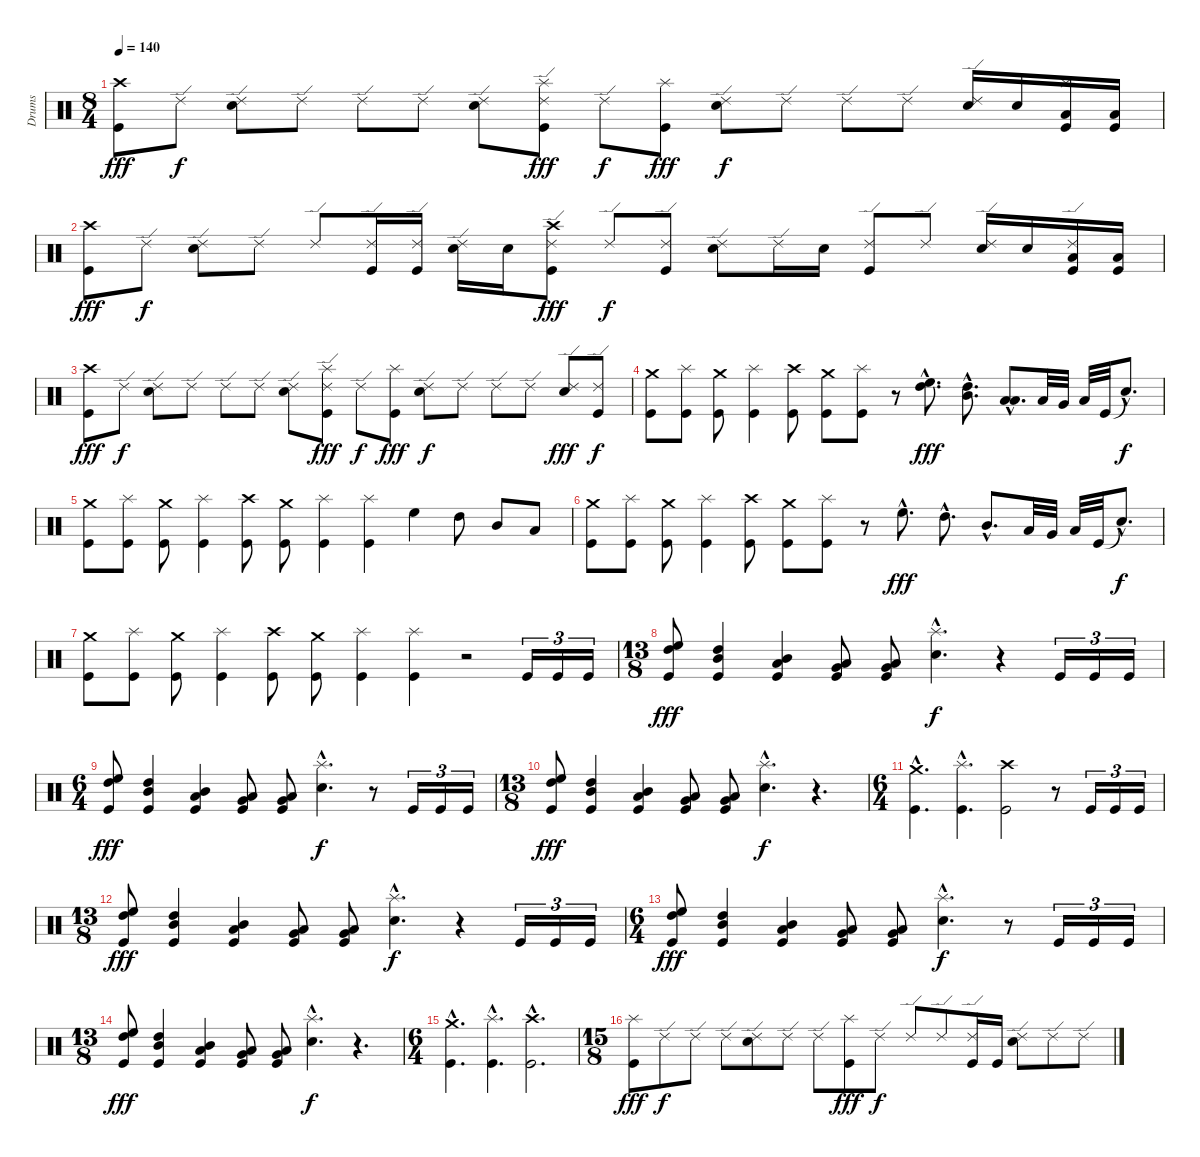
\track ("Drums" "Drums") {instrument percussion}
\staff {score}
\articulation defaults
\ts (8 4)
\tempo 140
\clef neutral
\ks c
("Crash high (hit)" "Kick (hit)").8{dy fff} "Ride (edge) 2".8{dy f} ("Ride (edge) 2" "Snare (hit) 2").8 "Ride (edge) 2".8 "Ride (edge) 2".8 "Ride (edge) 2".8 ("Ride (edge) 2" "Snare (hit) 2").8 ("Splash (hit)" "Kick (hit)" "Ride (edge) 2").8{dy fff} "Ride (edge) 2".8{dy f} ("Splash (hit)" "Kick (hit)").8{dy fff} ("Ride (edge) 2" "Snare (hit) 2").8{dy f} "Ride (edge) 2".8 "Ride (edge) 2".8 "Ride (edge) 2".8 ("Ride (edge) 2" "Snare (hit) 2").16 "Snare (hit) 2".16 ("Splash (hit)" "Low Tom (hit)" "Kick (hit)").16 ("Low Floor Tom (hit)" "Kick (hit)").16 |
("Crash high (hit)" "Kick (hit)").8{dy fff} "Ride (edge) 2".8{dy f} ("Ride (edge) 2" "Snare (hit) 2").8 "Ride (edge) 2".8 "Ride (edge) 2".8 ("Ride (edge) 2" "Kick (hit)").16 ("Ride (edge) 2" "Kick (hit)").16 ("Ride (edge) 2" "Snare (hit) 2").16 "Snare (hit) 2".16 ("Crash high (hit)" "Kick (hit)" "Ride (edge) 2").8{dy fff} "Ride (edge) 2".8{dy f} ("Ride (edge) 2" "Kick (hit)").8 ("Ride (edge) 2" "Snare (hit) 2").8 "Ride (edge) 2".16 "Snare (hit) 2".16 ("Ride (edge) 2" "Kick (hit)").8 "Ride (edge) 2".8 ("Ride (edge) 2" "Snare (hit) 2").16 "Snare (hit) 2".16 ("Ride (edge) 2" "Low Tom (hit)" "Kick (hit)").16 ("Low Floor Tom (hit)" "Kick (hit)").16 |
("Crash high (hit)" "Kick (hit)").8{dy fff} "Ride (edge) 2".8{dy f} ("Ride (edge) 2" "Snare (hit) 2").8 "Ride (edge) 2".8 "Ride (edge) 2".8 "Ride (edge) 2".8 ("Ride (edge) 2" "Snare (hit) 2").8 ("Splash (hit)" "Kick (hit)" "Ride (edge) 2").8{dy fff} "Ride (edge) 2".8{dy f} ("Splash (hit)" "Kick (hit)").8{dy fff} ("Ride (edge) 2" "Snare (hit) 2").8{dy f} "Ride (edge) 2".8 "Ride (edge) 2".8 "Ride (edge) 2".8 ("Ride (edge) 2" "Snare (hit) 2").8{dy fff} ("Ride (edge) 2" "Kick (hit)").8{dy f} |
("Crash medium (hit)" "Kick (hit)").8 ("Splash (hit)" "Kick (hit)").8 ("Crash medium (hit)" "Kick (hit)").8 ("Splash (hit)" "Kick (hit)").4 ("Crash high (hit)" "Kick (hit)").8 ("Crash medium (hit)" "Kick (hit)").8 ("Splash (hit)" "Kick (hit)").8 r.8 ("High Floor Tom (hit)"{hac} "High Tom (hit)"{hac}).8{d bd 480 dy fff} ("High Tom (hit)"{hac} "Mid Tom (hit)"{hac}).8{d bd 480} ("Low Tom (hit)"{hac} "Low Tom (hit)"{hac}).8{d} "Low Tom (hit)".32 "Very Low Tom (hit)".32 "Low Floor Tom (hit)".32 "Kick (hit)".32 "Snare (hit)"{hac t}.8{d dy f} |
("Crash medium (hit)" "Kick (hit)").8 ("Splash (hit)" "Kick (hit)").8 ("Crash medium (hit)" "Kick (hit)").8 ("Splash (hit)" "Kick (hit)").4 ("Crash high (hit)" "Kick (hit)").8 ("Crash medium (hit)" "Kick (hit)").8 ("Splash (hit)" "Kick (hit)").4 ("Splash (hit)" "Kick (hit)").4 "High Floor Tom (hit)".4 "High Tom (hit)".8 "Mid Tom (hit)".8 "Low Tom (hit)".8 |
("Crash medium (hit)" "Kick (hit)").8 ("Splash (hit)" "Kick (hit)").8 ("Crash medium (hit)" "Kick (hit)").8 ("Splash (hit)" "Kick (hit)").4 ("Crash high (hit)" "Kick (hit)").8 ("Crash medium (hit)" "Kick (hit)").8 ("Splash (hit)" "Kick (hit)").8 r.8 "High Floor Tom (hit)"{hac}.8{d dy fff} "High Tom (hit)"{hac}.8{d} "Mid Tom (hit)"{hac}.8{d} "Low Tom (hit)".32 "Very Low Tom (hit)".32 "Low Floor Tom (hit)".32 "Kick (hit)".32 "Snare (hit)"{hac t}.8{d dy f} |
("Crash medium (hit)" "Kick (hit)").8 ("Splash (hit)" "Kick (hit)").8 ("Crash medium (hit)" "Kick (hit)").8 ("Splash (hit)" "Kick (hit)").4 ("Crash high (hit)" "Kick (hit)").8 ("Crash medium (hit)" "Kick (hit)").8 ("Splash (hit)" "Kick (hit)").4 ("Splash (hit)" "Kick (hit)").4 r.2 "Kick (hit)".16{tu (3 2)} "Kick (hit)".16{tu (3 2)} "Kick (hit)".16{tu (3 2)} |
\ts (13 8)
("Kick (hit)" "High Tom (hit)" "High Floor Tom (hit)").8{dy fff} ("Kick (hit)" "Mid Tom (hit)" "High Tom (hit)").4 ("Kick (hit)" "Low Tom (hit)" "Mid Tom (hit)").4 ("Kick (hit)" "Very Low Tom (hit)" "Low Floor Tom (hit)").8 ("Kick (hit)" "Very Low Tom (hit)" "Low Floor Tom (hit)").8 ("Splash (hit)"{hac} "Snare (hit) 2"{hac}).4{d dy f} r.4 "Kick (hit)".16{tu (3 2)} "Kick (hit)".16{tu (3 2)} "Kick (hit)".16{tu (3 2)} |
\ts (6 4)
("Kick (hit)" "High Tom (hit)" "High Floor Tom (hit)").8{dy fff} ("Kick (hit)" "Mid Tom (hit)" "High Tom (hit)").4 ("Kick (hit)" "Low Tom (hit)" "Mid Tom (hit)").4 ("Kick (hit)" "Very Low Tom (hit)" "Low Floor Tom (hit)").8 ("Kick (hit)" "Very Low Tom (hit)" "Low Floor Tom (hit)").8 ("Splash (hit)"{hac} "Snare (hit) 2"{hac}).4{d dy f} r.8 "Kick (hit)".16{tu (3 2)} "Kick (hit)".16{tu (3 2)} "Kick (hit)".16{tu (3 2)} |
\ts (13 8)
("Kick (hit)" "High Tom (hit)" "High Floor Tom (hit)").8{dy fff} ("Kick (hit)" "Mid Tom (hit)" "High Tom (hit)").4 ("Kick (hit)" "Low Tom (hit)" "Mid Tom (hit)").4 ("Kick (hit)" "Very Low Tom (hit)" "Low Floor Tom (hit)").8 ("Kick (hit)" "Very Low Tom (hit)" "Low Floor Tom (hit)").8 ("Splash (hit)"{hac} "Snare (hit) 2"{hac}).4{d dy f} r.4{d} |
\ts (6 4)
("Crash medium (hit)"{hac} "Kick (hit)"{hac}).4{d} ("Splash (hit)"{hac} "Kick (hit)"{hac}).4{d} ("Crash high (hit)" "Kick (hit)").2 r.8 "Kick (hit)".16{tu (3 2)} "Kick (hit)".16{tu (3 2)} "Kick (hit)".16{tu (3 2)} |
\ts (13 8)
("Kick (hit)" "High Tom (hit)" "High Floor Tom (hit)").8{dy fff} ("Kick (hit)" "Mid Tom (hit)" "High Tom (hit)").4 ("Kick (hit)" "Low Tom (hit)" "Mid Tom (hit)").4 ("Kick (hit)" "Very Low Tom (hit)" "Low Floor Tom (hit)").8 ("Kick (hit)" "Very Low Tom (hit)" "Low Floor Tom (hit)").8 ("Splash (hit)"{hac} "Snare (hit) 2"{hac}).4{d dy f} r.4 "Kick (hit)".16{tu (3 2)} "Kick (hit)".16{tu (3 2)} "Kick (hit)".16{tu (3 2)} |
\ts (6 4)
("Kick (hit)" "High Tom (hit)" "High Floor Tom (hit)").8{dy fff} ("Kick (hit)" "Mid Tom (hit)" "High Tom (hit)").4 ("Kick (hit)" "Low Tom (hit)" "Mid Tom (hit)").4 ("Kick (hit)" "Very Low Tom (hit)" "Low Floor Tom (hit)").8 ("Kick (hit)" "Very Low Tom (hit)" "Low Floor Tom (hit)").8 ("Splash (hit)"{hac} "Snare (hit) 2"{hac}).4{d dy f} r.8 "Kick (hit)".16{tu (3 2)} "Kick (hit)".16{tu (3 2)} "Kick (hit)".16{tu (3 2)} |
\ts (13 8)
("Kick (hit)" "High Tom (hit)" "High Floor Tom (hit)").8{dy fff} ("Kick (hit)" "Mid Tom (hit)" "High Tom (hit)").4 ("Kick (hit)" "Low Tom (hit)" "Mid Tom (hit)").4 ("Kick (hit)" "Very Low Tom (hit)" "Low Floor Tom (hit)").8 ("Kick (hit)" "Very Low Tom (hit)" "Low Floor Tom (hit)").8 ("Splash (hit)"{hac} "Snare (hit) 2"{hac}).4{d dy f} r.4{d} |
\ts (6 4)
("Crash medium (hit)"{hac} "Kick (hit)"{hac}).4{d} ("Splash (hit)"{hac} "Kick (hit)"{hac}).4{d} ("Crash high (hit)"{hac} "Kick (hit)"{hac}).2{d} |
\ts (15 8)
("Splash (hit)" "Kick (hit)").8{dy fff} "Ride (edge) 2".8{dy f} "Ride (edge) 2".8 "Ride (edge) 2".8 ("Ride (edge) 2" "Snare (hit) 2").8 "Ride (edge) 2".8 "Ride (edge) 2".8 ("Splash (hit)" "Kick (hit)").8{dy fff} "Ride (edge) 2".8{dy f} "Ride (edge) 2".8 "Ride (edge) 2".8 ("Ride (edge) 2" "Kick (hit)").16 "Kick (hit)".16 ("Ride (edge) 2" "Snare (hit) 2").8 "Ride (edge) 2".8 "Ride (edge) 2".8
